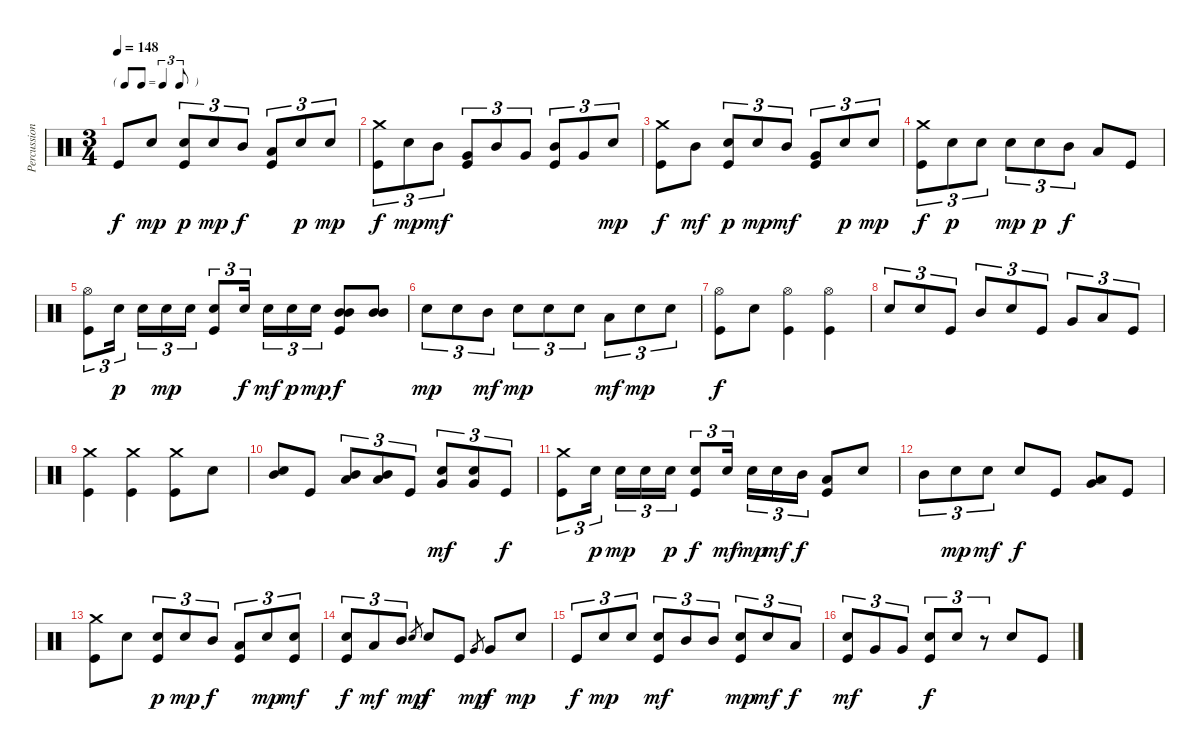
\track ("Percussions" "Percussion") {instrument percussion}
\staff {score}
\articulation defaults
\ts (3 4)
\tf triplet8th
\tempo 148
\clef neutral
\ks c "Kick (hit)".8{dy f} "Electric Snare (hit)".8{dy mp}
("Electric Snare (hit)" "Kick (hit)").8{tu (3 2) dy p} "Electric Snare (hit)".8{tu (3 2) dy mp} "Mid Tom (hit)".8{tu (3 2) dy f} ("Low Tom (hit)" "Kick (hit)").8{tu (3 2)} "Electric Snare (hit)".8{tu (3 2) dy p} "Electric Snare (hit)".8{tu (3 2) dy mp} |
("Crash medium (hit)" "Kick (hit)").8{tu (3 2) dy f} "Electric Snare (hit)".8{tu (3 2) dy mp} "Mid Tom (hit)".8{tu (3 2) dy mf} ("Very Low Tom (hit)" "Kick (hit)").8{tu (3 2)} "Mid Tom (hit)".8{tu (3 2)} "Very Low Tom (hit)".8{tu (3 2)} ("Mid Tom (hit)" "Kick (hit)").8{tu (3 2)} "Very Low Tom (hit)".8{tu (3 2)} "Electric Snare (hit)".8{tu (3 2) dy mp} |
("Crash medium (hit)" "Kick (hit)").8{dy f} "Mid Tom (hit)".8{dy mf} ("Electric Snare (hit)" "Kick (hit)").8{tu (3 2) dy p} "Electric Snare (hit)".8{tu (3 2) dy mp} "Mid Tom (hit)".8{tu (3 2) dy mf} ("Very Low Tom (hit)" "Kick (hit)").8{tu (3 2)} "Electric Snare (hit)".8{tu (3 2) dy p} "Electric Snare (hit)".8{tu (3 2) dy mp} |
("Crash medium (hit)" "Kick (hit)").8{tu (3 2) dy f} "Electric Snare (hit)".8{tu (3 2) dy p} "Electric Snare (hit)".8{tu (3 2)} "Electric Snare (hit)".8{tu (3 2) dy mp} "Electric Snare (hit)".8{tu (3 2) dy p} "Mid Tom (hit)".8{tu (3 2) dy f} "Low Tom (hit)".8 "Kick (hit)".8 |
("Hi-Hat (open)" "Kick (hit)").8{tu (3 2)} "Electric Snare (hit)".16{tu (3 2) dy p} "Electric Snare (hit)".16{tu (3 2)} "Electric Snare (hit)".16{tu (3 2) dy mp} "Electric Snare (hit)".16{tu (3 2)} ("Electric Snare (hit)" "Kick (hit)").8{tu (3 2)} "Electric Snare (hit)".16{tu (3 2) dy f} "Electric Snare (hit)".16{tu (3 2) dy mf} "Electric Snare (hit)".16{tu (3 2) dy p} "Electric Snare (hit)".16{tu (3 2) dy mp} ("Mid Tom (hit)" "Mid Tom (hit)" "Kick (hit)").8{dy f} ("Mid Tom (hit)" "Mid Tom (hit)").8 |
"Electric Snare (hit)".8{tu (3 2) dy mp} "Electric Snare (hit)".8{tu (3 2)} "Mid Tom (hit)".8{tu (3 2) dy mf} "Electric Snare (hit)".8{tu (3 2) dy mp} "Electric Snare (hit)".8{tu (3 2)} "Electric Snare (hit)".8{tu (3 2)} "Low Tom (hit)".8{tu (3 2) dy mf} "Electric Snare (hit)".8{tu (3 2) dy mp} "Electric Snare (hit)".8{tu (3 2)} |
("Hi-Hat (open)" "Kick (hit)").8{dy f} "Electric Snare (hit)".8 ("Hi-Hat (open)" "Kick (hit)").4 ("Hi-Hat (open)" "Kick (hit)").4 |
"Electric Snare (hit)".8{tu (3 2)} "Electric Snare (hit)".8{tu (3 2)} "Kick (hit)".8{tu (3 2)} "Mid Tom (hit)".8{tu (3 2)} "Electric Snare (hit)".8{tu (3 2)} "Kick (hit)".8{tu (3 2)} "Very Low Tom (hit)".8{tu (3 2)} "Low Tom (hit)".8{tu (3 2)} "Kick (hit)".8{tu (3 2)} |
("Crash medium (hit)" "Kick (hit)").4 ("Crash medium (hit)" "Kick (hit)").4 ("Crash medium (hit)" "Kick (hit)").8 "Electric Snare (hit)".8 |
("Mid Tom (hit)" "Electric Snare (hit)").8 "Kick (hit)".8 ("Mid Tom (hit)" "Low Tom (hit)").8{tu (3 2)} ("Mid Tom (hit)" "Low Tom (hit)").8{tu (3 2)} "Kick (hit)".8{tu (3 2)} ("Electric Snare (hit)" "Very Low Tom (hit)").8{tu (3 2) dy mf} ("Electric Snare (hit)" "Very Low Tom (hit)").8{tu (3 2)} "Kick (hit)".8{tu (3 2) dy f} |
("Crash medium (hit)" "Kick (hit)").8{tu (3 2)} "Electric Snare (hit)".16{tu (3 2) dy p} "Electric Snare (hit)".16{tu (3 2) dy mp} "Electric Snare (hit)".16{tu (3 2)} "Electric Snare (hit)".16{tu (3 2) dy p} ("Electric Snare (hit)" "Kick (hit)").8{tu (3 2) dy f} "Electric Snare (hit)".16{tu (3 2) dy mf} "Electric Snare (hit)".16{tu (3 2) dy mp} "Electric Snare (hit)".16{tu (3 2) dy mf} "Mid Tom (hit)".16{tu (3 2) dy f} ("Low Tom (hit)" "Kick (hit)").8 "Electric Snare (hit)".8 |
"Mid Tom (hit)".8{tu (3 2)} "Electric Snare (hit)".8{tu (3 2) dy mp} "Electric Snare (hit)".8{tu (3 2) dy mf} "Electric Snare (hit)".8{dy f} "Kick (hit)".8 ("Low Tom (hit)" "Very Low Tom (hit)").8 "Kick (hit)".8 |
("Crash medium (hit)" "Kick (hit)").8 "Electric Snare (hit)".8 ("Electric Snare (hit)" "Kick (hit)").8{tu (3 2) dy p} "Electric Snare (hit)".8{tu (3 2) dy mp} "Mid Tom (hit)".8{tu (3 2) dy f} ("Low Tom (hit)" "Kick (hit)").8{tu (3 2)} "Electric Snare (hit)".8{tu (3 2) dy mp} ("Electric Snare (hit)" "Kick (hit)").8{tu (3 2) dy mf} |
("Electric Snare (hit)" "Kick (hit)").8{tu (3 2) dy f} "Low Tom (hit)".8{tu (3 2) dy mf} "Mid Tom (hit)".8{tu (3 2)} "Electric Snare (hit)".8{gr dy mp} "Electric Snare (hit)".8{dy f} "Kick (hit)".8 "Very Low Tom (hit)".8{gr dy mp} "Very Low Tom (hit)".8{dy f} "Electric Snare (hit)".8{dy mp} |
"Kick (hit)".8{tu (3 2) dy f} "Electric Snare (hit)".8{tu (3 2) dy mp} "Electric Snare (hit)".8{tu (3 2)} ("Electric Snare (hit)" "Kick (hit)").8{tu (3 2) dy mf} "Mid Tom (hit)".8{tu (3 2)} "Mid Tom (hit)".8{tu (3 2)} ("Electric Snare (hit)" "Kick (hit)").8{tu (3 2) dy mp} "Electric Snare (hit)".8{tu (3 2) dy mf} "Low Tom (hit)".8{tu (3 2) dy f} |
("Electric Snare (hit)" "Kick (hit)").8{tu (3 2) dy mf} "Very Low Tom (hit)".8{tu (3 2)} "Very Low Tom (hit)".8{tu (3 2)} ("Electric Snare (hit)" "Kick (hit)").8{tu (3 2) dy f} "Electric Snare (hit)".8{tu (3 2)} r.8{tu (3 2)} "Electric Snare (hit)".8 "Kick (hit)".8
